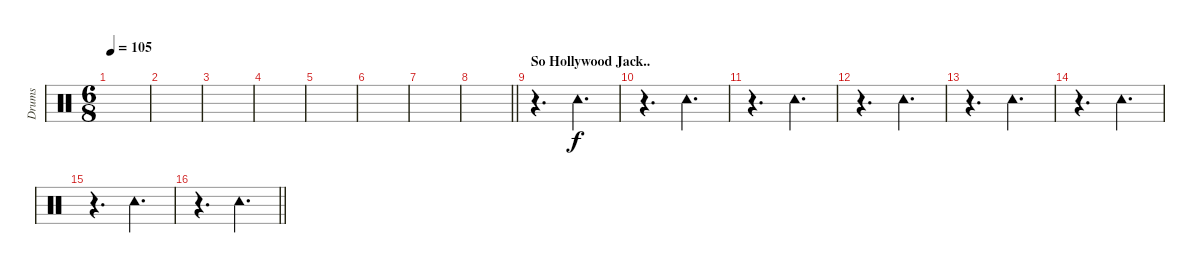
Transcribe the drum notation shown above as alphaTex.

\track ("Drums" "Drums") {instrument percussion}
\staff {score}
\articulation defaults
\ts (6 8)
\tempo 105
\clef neutral
\ks c
|
|
|
|
|
|
|
\barLineRight lightlight
|
\section ("" "So Hollywood Jack..")
r.4{d} "Tambourine (hit)".4{d} |
r.4{d} "Tambourine (hit)".4{d} |
r.4{d} "Tambourine (hit)".4{d} |
r.4{d} "Tambourine (hit)".4{d} |
r.4{d} "Tambourine (hit)".4{d} |
r.4{d} "Tambourine (hit)".4{d} |
r.4{d} "Tambourine (hit)".4{d} |
\barLineRight lightlight
r.4{d} "Tambourine (hit)".4{d}
